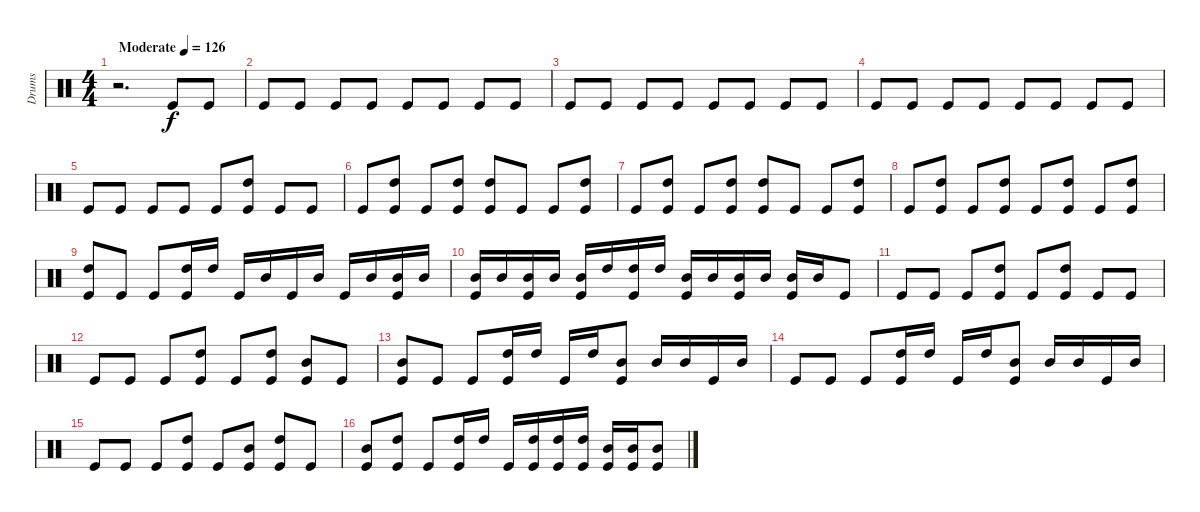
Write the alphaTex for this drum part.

\track ("Drums" "Drums") {instrument percussion}
\staff {score}
\articulation defaults
\ts (4 4)
\tempo (126 "Moderate")
\clef neutral
\ks c
r.2{d dy f} "Kick (hit)".8 "Kick (hit)".8 |
"Kick (hit)".8 "Kick (hit)".8 "Kick (hit)".8 "Kick (hit)".8 "Kick (hit)".8 "Kick (hit)".8 "Kick (hit)".8 "Kick (hit)".8 |
"Kick (hit)".8 "Kick (hit)".8 "Kick (hit)".8 "Kick (hit)".8 "Kick (hit)".8 "Kick (hit)".8 "Kick (hit)".8 "Kick (hit)".8 |
"Kick (hit)".8 "Kick (hit)".8 "Kick (hit)".8 "Kick (hit)".8 "Kick (hit)".8 "Kick (hit)".8 "Kick (hit)".8 "Kick (hit)".8 |
"Kick (hit)".8 "Kick (hit)".8 "Kick (hit)".8 "Kick (hit)".8 "Kick (hit)".8 ("High Tom (hit)" "Kick (hit)").8 "Kick (hit)".8 "Kick (hit)".8 |
"Kick (hit)".8 ("High Tom (hit)" "Kick (hit)").8 "Kick (hit)".8 ("High Tom (hit)" "Kick (hit)").8 ("High Tom (hit)" "Kick (hit)").8 "Kick (hit)".8 "Kick (hit)".8 ("High Tom (hit)" "Kick (hit)").8 |
"Kick (hit)".8 ("High Tom (hit)" "Kick (hit)").8 "Kick (hit)".8 ("High Tom (hit)" "Kick (hit)").8 ("High Tom (hit)" "Kick (hit)").8 "Kick (hit)".8 "Kick (hit)".8 ("High Tom (hit)" "Kick (hit)").8 |
"Kick (hit)".8 ("High Tom (hit)" "Kick (hit)").8 "Kick (hit)".8 ("High Tom (hit)" "Kick (hit)").8 "Kick (hit)".8 ("High Tom (hit)" "Kick (hit)").8 "Kick (hit)".8 ("High Tom (hit)" "Kick (hit)").8 |
("High Tom (hit)" "Kick (hit)").8 "Kick (hit)".8 "Kick (hit)".8 ("High Tom (hit)" "Kick (hit)").16 "High Tom (hit)".16 "Kick (hit)".16 "Mid Tom (hit)".16 "Kick (hit)".16 "Mid Tom (hit)".16 "Kick (hit)".16 "Mid Tom (hit)".16 ("Mid Tom (hit)" "Kick (hit)").16 "Mid Tom (hit)".16 |
("Mid Tom (hit)" "Kick (hit)").16 "Mid Tom (hit)".16 ("Mid Tom (hit)" "Kick (hit)").16 "Mid Tom (hit)".16 ("Mid Tom (hit)" "Kick (hit)").16 "High Tom (hit)".16 ("High Tom (hit)" "Kick (hit)").16 "High Tom (hit)".16 ("Mid Tom (hit)" "Kick (hit)").16 "Mid Tom (hit)".16 ("Mid Tom (hit)" "Kick (hit)").16 "Mid Tom (hit)".16 ("Mid Tom (hit)" "Kick (hit)").16 "Mid Tom (hit)".16 "Kick (hit)".8 |
"Kick (hit)".8 "Kick (hit)".8 "Kick (hit)".8 ("High Tom (hit)" "Kick (hit)").8 "Kick (hit)".8 ("High Tom (hit)" "Kick (hit)").8 "Kick (hit)".8 "Kick (hit)".8 |
"Kick (hit)".8 "Kick (hit)".8 "Kick (hit)".8 ("High Tom (hit)" "Kick (hit)").8 "Kick (hit)".8 ("High Tom (hit)" "Kick (hit)").8 ("Mid Tom (hit)" "Kick (hit)").8 "Kick (hit)".8 |
("Mid Tom (hit)" "Kick (hit)").8 "Kick (hit)".8 "Kick (hit)".8 ("High Tom (hit)" "Kick (hit)").16 "High Tom (hit)".16 "Kick (hit)".16 "High Tom (hit)".16 ("Mid Tom (hit)" "Kick (hit)").8 "Mid Tom (hit)".16 "Mid Tom (hit)".16 "Kick (hit)".16 "Mid Tom (hit)".16 |
"Kick (hit)".8 "Kick (hit)".8 "Kick (hit)".8 ("High Tom (hit)" "Kick (hit)").16 "High Tom (hit)".16 "Kick (hit)".16 "High Tom (hit)".16 ("Mid Tom (hit)" "Kick (hit)").8 "Mid Tom (hit)".16 "Mid Tom (hit)".16 "Kick (hit)".16 "Mid Tom (hit)".16 |
"Kick (hit)".8 "Kick (hit)".8 "Kick (hit)".8 ("High Tom (hit)" "Kick (hit)").8 "Kick (hit)".8 ("Mid Tom (hit)" "Kick (hit)").8 ("High Tom (hit)" "Kick (hit)").8 "Kick (hit)".8 |
("Mid Tom (hit)" "Kick (hit)").8 ("High Tom (hit)" "Kick (hit)").8 "Kick (hit)".8 ("High Tom (hit)" "Kick (hit)").16 "High Tom (hit)".16 "Kick (hit)".16 ("High Tom (hit)" "Kick (hit)").16 ("High Tom (hit)" "Kick (hit)").16 ("High Tom (hit)" "Kick (hit)").16 ("Mid Tom (hit)" "Kick (hit)").16 ("Mid Tom (hit)" "Kick (hit)").16 ("Mid Tom (hit)" "Kick (hit)").8
